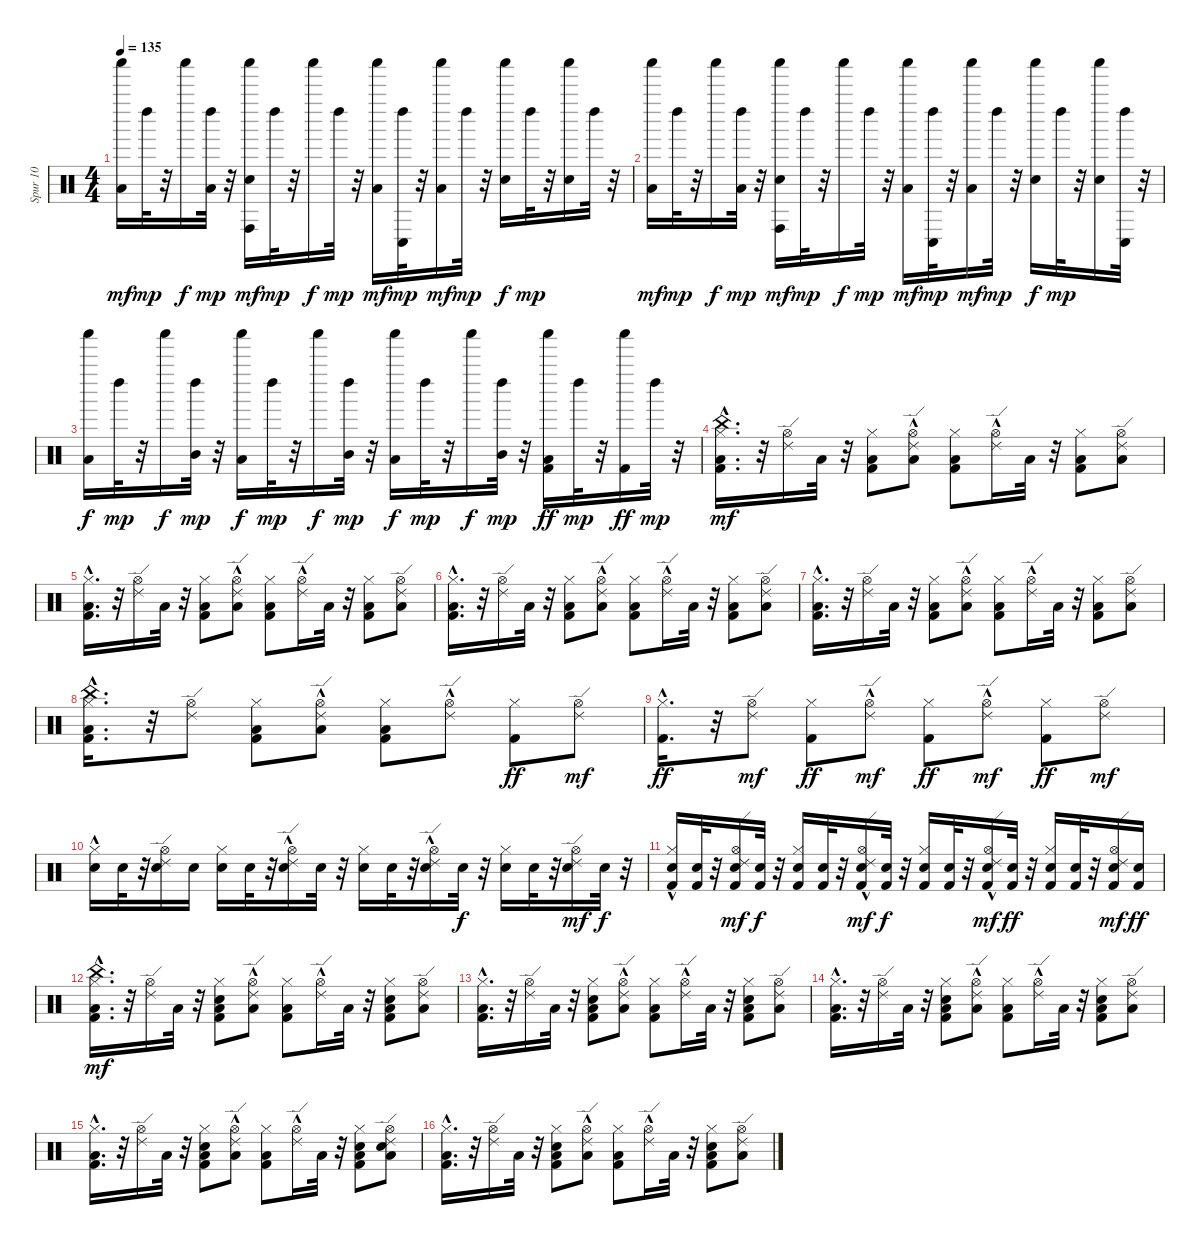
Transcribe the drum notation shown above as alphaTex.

\track ("Spur 10" "Spur 10") {instrument percussion}
\staff {score}
\articulation defaults
\ts (4 4)
\tempo 135
\clef neutral
\ks c
("Low Tom (hit)" "Shaker (hit)").16{dy mf} "Left Maraca (hit)".32{dy mp} r.32 "Shaker (hit)".16{dy f} ("Low Tom (hit)" "Left Maraca (hit)").32{dy mp} r.32 ("Conga high (hit)" "Hand Clap (hit)" "Shaker (hit)").16{dy mf} "Left Maraca (hit)".32{dy mp} r.32 "Shaker (hit)".16{dy f} "Left Maraca (hit)".32{dy mp} r.32 ("Low Tom (hit)" "Shaker (hit)").16{dy mf} ("Conga low (hit)" "Left Maraca (hit)").32{dy mp} r.32 ("Low Tom (hit)" "Shaker (hit)").16{dy mf} "Left Maraca (hit)".32{dy mp} r.32 ("Hand Clap (hit)" "Shaker (hit)").16{dy f} "Left Maraca (hit)".32{dy mp} r.32 ("Hand Clap (hit)" "Shaker (hit)").16 "Left Maraca (hit)".32 r.32 |
("Low Tom (hit)" "Shaker (hit)").16{dy mf} "Left Maraca (hit)".32{dy mp} r.32 "Shaker (hit)".16{dy f} ("Low Tom (hit)" "Left Maraca (hit)").32{dy mp} r.32 ("Conga high (hit)" "Hand Clap (hit)" "Shaker (hit)").16{dy mf} "Left Maraca (hit)".32{dy mp} r.32 "Shaker (hit)".16{dy f} "Left Maraca (hit)".32{dy mp} r.32 ("Low Tom (hit)" "Shaker (hit)").16{dy mf} ("Conga low (hit)" "Left Maraca (hit)").32{dy mp} r.32 ("Low Tom (hit)" "Shaker (hit)").16{dy mf} "Left Maraca (hit)".32{dy mp} r.32 ("Hand Clap (hit)" "Shaker (hit)").16{dy f} "Left Maraca (hit)".32{dy mp} r.32 ("Hand Clap (hit)" "Shaker (hit)").16 ("Conga low (hit)" "Left Maraca (hit)").32 r.32 |
("Low Tom (hit)" "Shaker (hit)").16{dy f} "Left Maraca (hit)".32{dy mp} r.32 "Shaker (hit)".16{dy f} ("Mid Tom (hit)" "Left Maraca (hit)").32{dy mp} r.32 ("Low Tom (hit)" "Shaker (hit)").16{dy f} "Left Maraca (hit)".32{dy mp} r.32 "Shaker (hit)".16{dy f} ("Mid Tom (hit)" "Left Maraca (hit)").32{dy mp} r.32 ("Low Tom (hit)" "Shaker (hit)").16{dy f} "Left Maraca (hit)".32{dy mp} r.32 "Shaker (hit)".16{dy f} ("Mid Tom (hit)" "Left Maraca (hit)").32{dy mp} r.32 ("Kick (hit) 2" "Low Tom (hit)" "Shaker (hit)").16{dy ff} "Left Maraca (hit)".32{dy mp} r.32 ("Kick (hit) 2" "Shaker (hit)").16{dy ff} "Left Maraca (hit)".32{dy mp} r.32 |
("Kick (hit) 2" "Low Tom (hit)" "Hi-Hat (closed)"{hac} "China (hit)").16{d dy mf} r.32 ("Ride (edge) 2" "Hi-Hat (open)").16 "Low Tom (hit)".32 r.32 ("Kick (hit) 2" "Low Tom (hit)" "Hi-Hat (closed)").8 ("Low Tom (hit)" "Hi-Hat (open)" "Ride (edge) 2"{hac}).8 ("Kick (hit) 2" "Low Tom (hit)" "Hi-Hat (closed)").8 ("Hi-Hat (open)" "Ride (edge) 2"{hac}).16 "Low Tom (hit)".32 r.32 ("Kick (hit) 2" "Low Tom (hit)" "Hi-Hat (closed)").8 ("Low Tom (hit)" "Hi-Hat (open)" "Ride (edge) 2").8 |
("Kick (hit) 2" "Low Tom (hit)" "Hi-Hat (closed)"{hac}).16{d} r.32 ("Ride (edge) 2" "Hi-Hat (open)").16 "Low Tom (hit)".32 r.32 ("Kick (hit) 2" "Low Tom (hit)" "Hi-Hat (closed)").8 ("Low Tom (hit)" "Hi-Hat (open)" "Ride (edge) 2"{hac}).8 ("Kick (hit) 2" "Low Tom (hit)" "Hi-Hat (closed)").8 ("Hi-Hat (open)" "Ride (edge) 2"{hac}).16 "Low Tom (hit)".32 r.32 ("Kick (hit) 2" "Low Tom (hit)" "Hi-Hat (closed)").8 ("Low Tom (hit)" "Hi-Hat (open)" "Ride (edge) 2").8 |
("Kick (hit) 2" "Low Tom (hit)" "Hi-Hat (closed)"{hac}).16{d} r.32 ("Ride (edge) 2" "Hi-Hat (open)").16 "Low Tom (hit)".32 r.32 ("Kick (hit) 2" "Low Tom (hit)" "Hi-Hat (closed)").8 ("Low Tom (hit)" "Hi-Hat (open)" "Ride (edge) 2"{hac}).8 ("Kick (hit) 2" "Low Tom (hit)" "Hi-Hat (closed)").8 ("Hi-Hat (open)" "Ride (edge) 2"{hac}).16 "Low Tom (hit)".32 r.32 ("Kick (hit) 2" "Low Tom (hit)" "Hi-Hat (closed)").8 ("Low Tom (hit)" "Hi-Hat (open)" "Ride (edge) 2").8 |
("Kick (hit) 2" "Low Tom (hit)" "Hi-Hat (closed)"{hac}).16{d} r.32 ("Ride (edge) 2" "Hi-Hat (open)").16 "Low Tom (hit)".32 r.32 ("Kick (hit) 2" "Low Tom (hit)" "Hi-Hat (closed)").8 ("Low Tom (hit)" "Hi-Hat (open)" "Ride (edge) 2"{hac}).8 ("Kick (hit) 2" "Low Tom (hit)" "Hi-Hat (closed)").8 ("Hi-Hat (open)" "Ride (edge) 2"{hac}).16 "Low Tom (hit)".32 r.32 ("Kick (hit) 2" "Low Tom (hit)" "Hi-Hat (closed)").8 ("Low Tom (hit)" "Hi-Hat (open)" "Ride (edge) 2").8 |
("Kick (hit) 2" "Low Tom (hit)" "Hi-Hat (closed)"{hac} "China (hit)").16{d} r.32 ("Ride (edge) 2" "Hi-Hat (open)").8 ("Kick (hit) 2" "Low Tom (hit)" "Hi-Hat (closed)").8 ("Low Tom (hit)" "Hi-Hat (open)" "Ride (edge) 2"{hac}).8 ("Kick (hit) 2" "Low Tom (hit)" "Hi-Hat (closed)").8 ("Hi-Hat (open)" "Ride (edge) 2"{hac}).8 ("Kick (hit) 2" "Hi-Hat (closed)").8{dy ff} ("Hi-Hat (open)" "Ride (edge) 2").8{dy mf} |
("Kick (hit) 2" "Hi-Hat (closed)"{hac}).16{d dy ff} r.32 ("Ride (edge) 2" "Hi-Hat (open)").8{dy mf} ("Kick (hit) 2" "Hi-Hat (closed)").8{dy ff} ("Hi-Hat (open)" "Ride (edge) 2"{hac}).8{dy mf} ("Kick (hit) 2" "Hi-Hat (closed)").8{dy ff} ("Hi-Hat (open)" "Ride (edge) 2"{hac}).8{dy mf} ("Kick (hit) 2" "Hi-Hat (closed)").8{dy ff} ("Hi-Hat (open)" "Ride (edge) 2").8{dy mf} |
("Snare (hit) 2" "Hi-Hat (closed)"{hac}).16 "Snare (hit) 2".32 r.32 ("Snare (hit) 2" "Ride (edge) 2" "Hi-Hat (open)").16 "Snare (hit) 2".16 ("Snare (hit) 2" "Hi-Hat (closed)").16 "Snare (hit) 2".32 r.32 ("Snare (hit) 2" "Hi-Hat (open)" "Ride (edge) 2"{hac}).16 "Snare (hit) 2".32 r.32 ("Snare (hit) 2" "Hi-Hat (closed)").16 "Snare (hit) 2".32 r.32 ("Snare (hit) 2" "Hi-Hat (open)" "Ride (edge) 2"{hac}).16 "Snare (hit) 2".32{dy f} r.32 ("Snare (hit) 2" "Hi-Hat (closed)").16 "Snare (hit) 2".32 r.32 ("Snare (hit) 2" "Hi-Hat (open)" "Ride (edge) 2").16{dy mf} "Snare (hit) 2".32{dy f} r.32 |
("Snare (hit) 2" "Kick (hit) 2" "Hi-Hat (closed)"{hac}).16 ("Snare (hit) 2" "Kick (hit) 2").32 r.32 ("Snare (hit) 2" "Kick (hit) 2" "Ride (edge) 2" "Hi-Hat (open)").16{dy mf} ("Snare (hit) 2" "Kick (hit) 2").32{dy f} r.32 ("Snare (hit) 2" "Kick (hit) 2" "Hi-Hat (closed)").16 ("Snare (hit) 2" "Kick (hit) 2").32 r.32 ("Snare (hit) 2" "Kick (hit) 2" "Hi-Hat (open)" "Ride (edge) 2"{hac}).16{dy mf} ("Snare (hit) 2" "Kick (hit) 2").32{dy f} r.32 ("Snare (hit) 2" "Kick (hit) 2" "Hi-Hat (closed)").16 ("Snare (hit) 2" "Kick (hit) 2").32 r.32 ("Snare (hit) 2" "Kick (hit) 2" "Hi-Hat (open)" "Ride (edge) 2"{hac}).16{dy mf} ("Snare (hit) 2" "Kick (hit) 2").32{dy ff} r.32 ("Snare (hit) 2" "Kick (hit) 2" "Hi-Hat (closed)").16 ("Snare (hit) 2" "Kick (hit) 2").32 r.32 ("Snare (hit) 2" "Kick (hit) 2" "Hi-Hat (open)" "Ride (edge) 2").16{dy mf} ("Snare (hit) 2" "Kick (hit) 2").16{dy ff} |
("Kick (hit) 2" "Low Tom (hit)" "Hi-Hat (closed)"{hac} "China (hit)").16{d dy mf} r.32 ("Ride (edge) 2" "Hi-Hat (open)").16 "Low Tom (hit)".32 r.32 ("Kick (hit) 2" "Hand Clap (hit)" "Low Tom (hit)" "Hi-Hat (closed)").8 ("Low Tom (hit)" "Hi-Hat (open)" "Ride (edge) 2"{hac}).8 ("Kick (hit) 2" "Low Tom (hit)" "Hi-Hat (closed)").8 ("Hi-Hat (open)" "Ride (edge) 2"{hac}).16 "Low Tom (hit)".32 r.32 ("Kick (hit) 2" "Hand Clap (hit)" "Low Tom (hit)" "Hi-Hat (closed)").8 ("Low Tom (hit)" "Hi-Hat (open)" "Ride (edge) 2").8 |
("Kick (hit) 2" "Low Tom (hit)" "Hi-Hat (closed)"{hac}).16{d} r.32 ("Ride (edge) 2" "Hi-Hat (open)").16 "Low Tom (hit)".32 r.32 ("Kick (hit) 2" "Hand Clap (hit)" "Low Tom (hit)" "Hi-Hat (closed)").8 ("Low Tom (hit)" "Hi-Hat (open)" "Ride (edge) 2"{hac}).8 ("Kick (hit) 2" "Low Tom (hit)" "Hi-Hat (closed)").8 ("Hi-Hat (open)" "Ride (edge) 2"{hac}).16 "Low Tom (hit)".32 r.32 ("Kick (hit) 2" "Hand Clap (hit)" "Low Tom (hit)" "Hi-Hat (closed)").8 ("Low Tom (hit)" "Hi-Hat (open)" "Ride (edge) 2").8 |
("Kick (hit) 2" "Low Tom (hit)" "Hi-Hat (closed)"{hac}).16{d} r.32 ("Ride (edge) 2" "Hi-Hat (open)").16 "Low Tom (hit)".32 r.32 ("Kick (hit) 2" "Hand Clap (hit)" "Low Tom (hit)" "Hi-Hat (closed)").8 ("Low Tom (hit)" "Hi-Hat (open)" "Ride (edge) 2"{hac}).8 ("Kick (hit) 2" "Low Tom (hit)" "Hi-Hat (closed)").8 ("Hi-Hat (open)" "Ride (edge) 2"{hac}).16 "Low Tom (hit)".32 r.32 ("Kick (hit) 2" "Hand Clap (hit)" "Low Tom (hit)" "Hi-Hat (closed)").8 ("Low Tom (hit)" "Hi-Hat (open)" "Ride (edge) 2").8 |
("Kick (hit) 2" "Low Tom (hit)" "Hi-Hat (closed)"{hac}).16{d} r.32 ("Ride (edge) 2" "Hi-Hat (open)").16 "Low Tom (hit)".32 r.32 ("Kick (hit) 2" "Hand Clap (hit)" "Low Tom (hit)" "Hi-Hat (closed)").8 ("Low Tom (hit)" "Hi-Hat (open)" "Ride (edge) 2"{hac}).8 ("Kick (hit) 2" "Low Tom (hit)" "Hi-Hat (closed)").8 ("Hi-Hat (open)" "Ride (edge) 2"{hac}).16 "Low Tom (hit)".32 r.32 ("Kick (hit) 2" "Hand Clap (hit)" "Low Tom (hit)" "Hi-Hat (closed)").8 ("Hand Clap (hit)" "Low Tom (hit)" "Hi-Hat (open)" "Ride (edge) 2").8 |
("Kick (hit) 2" "Low Tom (hit)" "Hi-Hat (closed)"{hac}).16{d} r.32 ("Ride (edge) 2" "Hi-Hat (open)").16 "Low Tom (hit)".32 r.32 ("Kick (hit) 2" "Hand Clap (hit)" "Low Tom (hit)" "Hi-Hat (closed)").8 ("Low Tom (hit)" "Hi-Hat (open)" "Ride (edge) 2"{hac}).8 ("Kick (hit) 2" "Low Tom (hit)" "Hi-Hat (closed)").8 ("Hi-Hat (open)" "Ride (edge) 2"{hac}).16 "Low Tom (hit)".32 r.32 ("Kick (hit) 2" "Hand Clap (hit)" "Low Tom (hit)" "Hi-Hat (closed)").8 ("Low Tom (hit)" "Hi-Hat (open)" "Ride (edge) 2").8
